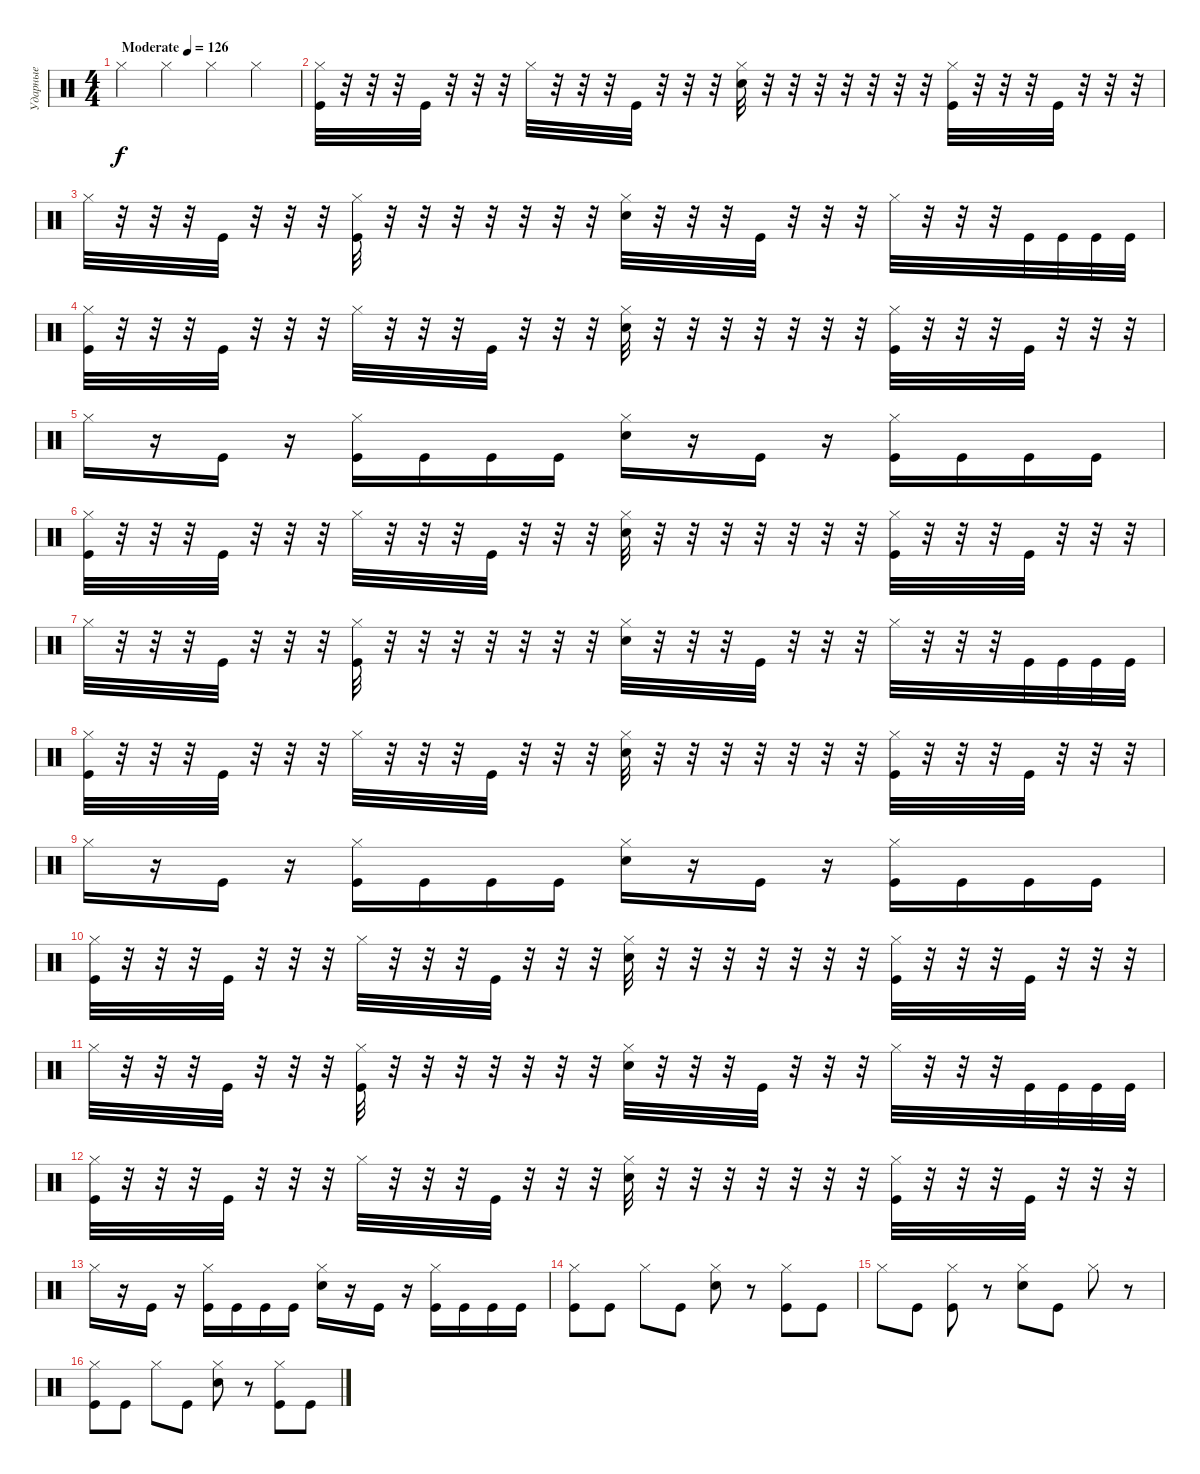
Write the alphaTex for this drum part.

\track ("Ударные" "Ударные") {instrument percussion}
\staff {score}
\articulation defaults
\ts (4 4)
\tempo (126 "Moderate")
\clef neutral
\ks c "Hi-Hat (closed)".4{dy f} "Hi-Hat (closed)".4 "Hi-Hat (closed)".4 "Hi-Hat (closed)".4
|
("Hi-Hat (closed)" "Kick (hit)").32 r.32 r.32 r.32 "Kick (hit)".32 r.32 r.32 r.32 "Hi-Hat (closed)".32 r.32 r.32 r.32 "Kick (hit)".32 r.32 r.32 r.32 ("Hi-Hat (closed)" "Electric Snare (hit)").32 r.32 r.32 r.32 r.32 r.32 r.32 r.32 ("Hi-Hat (closed)" "Kick (hit)").32 r.32 r.32 r.32 "Kick (hit)".32 r.32 r.32 r.32 |
"Hi-Hat (closed)".32 r.32 r.32 r.32 "Kick (hit)".32 r.32 r.32 r.32 ("Hi-Hat (closed)" "Kick (hit)").32 r.32 r.32 r.32 r.32 r.32 r.32 r.32 ("Hi-Hat (closed)" "Electric Snare (hit)").32 r.32 r.32 r.32 "Kick (hit)".32 r.32 r.32 r.32 "Hi-Hat (closed)".32 r.32 r.32 r.32 "Kick (hit)".32 "Kick (hit)".32 "Kick (hit)".32 "Kick (hit)".32 |
("Hi-Hat (closed)" "Kick (hit)").32 r.32 r.32 r.32 "Kick (hit)".32 r.32 r.32 r.32 "Hi-Hat (closed)".32 r.32 r.32 r.32 "Kick (hit)".32 r.32 r.32 r.32 ("Hi-Hat (closed)" "Electric Snare (hit)").32 r.32 r.32 r.32 r.32 r.32 r.32 r.32 ("Hi-Hat (closed)" "Kick (hit)").32 r.32 r.32 r.32 "Kick (hit)".32 r.32 r.32 r.32 |
"Hi-Hat (closed)".16 r.16 "Kick (hit)".16 r.16 ("Hi-Hat (closed)" "Kick (hit)").16 "Kick (hit)".16 "Kick (hit)".16 "Kick (hit)".16 ("Hi-Hat (closed)" "Electric Snare (hit)").16 r.16 "Kick (hit)".16 r.16 ("Hi-Hat (closed)" "Kick (hit)").16 "Kick (hit)".16 "Kick (hit)".16 "Kick (hit)".16 |
("Hi-Hat (closed)" "Kick (hit)").32 r.32 r.32 r.32 "Kick (hit)".32 r.32 r.32 r.32 "Hi-Hat (closed)".32 r.32 r.32 r.32 "Kick (hit)".32 r.32 r.32 r.32 ("Hi-Hat (closed)" "Electric Snare (hit)").32 r.32 r.32 r.32 r.32 r.32 r.32 r.32 ("Hi-Hat (closed)" "Kick (hit)").32 r.32 r.32 r.32 "Kick (hit)".32 r.32 r.32 r.32 |
"Hi-Hat (closed)".32 r.32 r.32 r.32 "Kick (hit)".32 r.32 r.32 r.32 ("Hi-Hat (closed)" "Kick (hit)").32 r.32 r.32 r.32 r.32 r.32 r.32 r.32 ("Hi-Hat (closed)" "Electric Snare (hit)").32 r.32 r.32 r.32 "Kick (hit)".32 r.32 r.32 r.32 "Hi-Hat (closed)".32 r.32 r.32 r.32 "Kick (hit)".32 "Kick (hit)".32 "Kick (hit)".32 "Kick (hit)".32 |
("Hi-Hat (closed)" "Kick (hit)").32 r.32 r.32 r.32 "Kick (hit)".32 r.32 r.32 r.32 "Hi-Hat (closed)".32 r.32 r.32 r.32 "Kick (hit)".32 r.32 r.32 r.32 ("Hi-Hat (closed)" "Electric Snare (hit)").32 r.32 r.32 r.32 r.32 r.32 r.32 r.32 ("Hi-Hat (closed)" "Kick (hit)").32 r.32 r.32 r.32 "Kick (hit)".32 r.32 r.32 r.32 |
"Hi-Hat (closed)".16 r.16 "Kick (hit)".16 r.16 ("Hi-Hat (closed)" "Kick (hit)").16 "Kick (hit)".16 "Kick (hit)".16 "Kick (hit)".16 ("Hi-Hat (closed)" "Electric Snare (hit)").16 r.16 "Kick (hit)".16 r.16 ("Hi-Hat (closed)" "Kick (hit)").16 "Kick (hit)".16 "Kick (hit)".16 "Kick (hit)".16 |
("Hi-Hat (closed)" "Kick (hit)").32 r.32 r.32 r.32 "Kick (hit)".32 r.32 r.32 r.32 "Hi-Hat (closed)".32 r.32 r.32 r.32 "Kick (hit)".32 r.32 r.32 r.32 ("Hi-Hat (closed)" "Electric Snare (hit)").32 r.32 r.32 r.32 r.32 r.32 r.32 r.32 ("Hi-Hat (closed)" "Kick (hit)").32 r.32 r.32 r.32 "Kick (hit)".32 r.32 r.32 r.32 |
"Hi-Hat (closed)".32 r.32 r.32 r.32 "Kick (hit)".32 r.32 r.32 r.32 ("Hi-Hat (closed)" "Kick (hit)").32 r.32 r.32 r.32 r.32 r.32 r.32 r.32 ("Hi-Hat (closed)" "Electric Snare (hit)").32 r.32 r.32 r.32 "Kick (hit)".32 r.32 r.32 r.32 "Hi-Hat (closed)".32 r.32 r.32 r.32 "Kick (hit)".32 "Kick (hit)".32 "Kick (hit)".32 "Kick (hit)".32 |
("Hi-Hat (closed)" "Kick (hit)").32 r.32 r.32 r.32 "Kick (hit)".32 r.32 r.32 r.32 "Hi-Hat (closed)".32 r.32 r.32 r.32 "Kick (hit)".32 r.32 r.32 r.32 ("Hi-Hat (closed)" "Electric Snare (hit)").32 r.32 r.32 r.32 r.32 r.32 r.32 r.32 ("Hi-Hat (closed)" "Kick (hit)").32 r.32 r.32 r.32 "Kick (hit)".32 r.32 r.32 r.32 |
"Hi-Hat (closed)".16 r.16 "Kick (hit)".16 r.16 ("Hi-Hat (closed)" "Kick (hit)").16 "Kick (hit)".16 "Kick (hit)".16 "Kick (hit)".16 ("Hi-Hat (closed)" "Electric Snare (hit)").16 r.16 "Kick (hit)".16 r.16 ("Hi-Hat (closed)" "Kick (hit)").16 "Kick (hit)".16 "Kick (hit)".16 "Kick (hit)".16 |
("Hi-Hat (closed)" "Kick (hit)").8 "Kick (hit)".8 "Hi-Hat (closed)".8 "Kick (hit)".8 ("Hi-Hat (closed)" "Electric Snare (hit)").8 r.8 ("Hi-Hat (closed)" "Kick (hit)").8 "Kick (hit)".8 |
"Hi-Hat (closed)".8 "Kick (hit)".8 ("Hi-Hat (closed)" "Kick (hit)").8 r.8 ("Hi-Hat (closed)" "Electric Snare (hit)").8 "Kick (hit)".8 "Hi-Hat (closed)".8 r.8 |
("Hi-Hat (closed)" "Kick (hit)").8 "Kick (hit)".8 "Hi-Hat (closed)".8 "Kick (hit)".8 ("Hi-Hat (closed)" "Electric Snare (hit)").8 r.8 ("Hi-Hat (closed)" "Kick (hit)").8 "Kick (hit)".8
